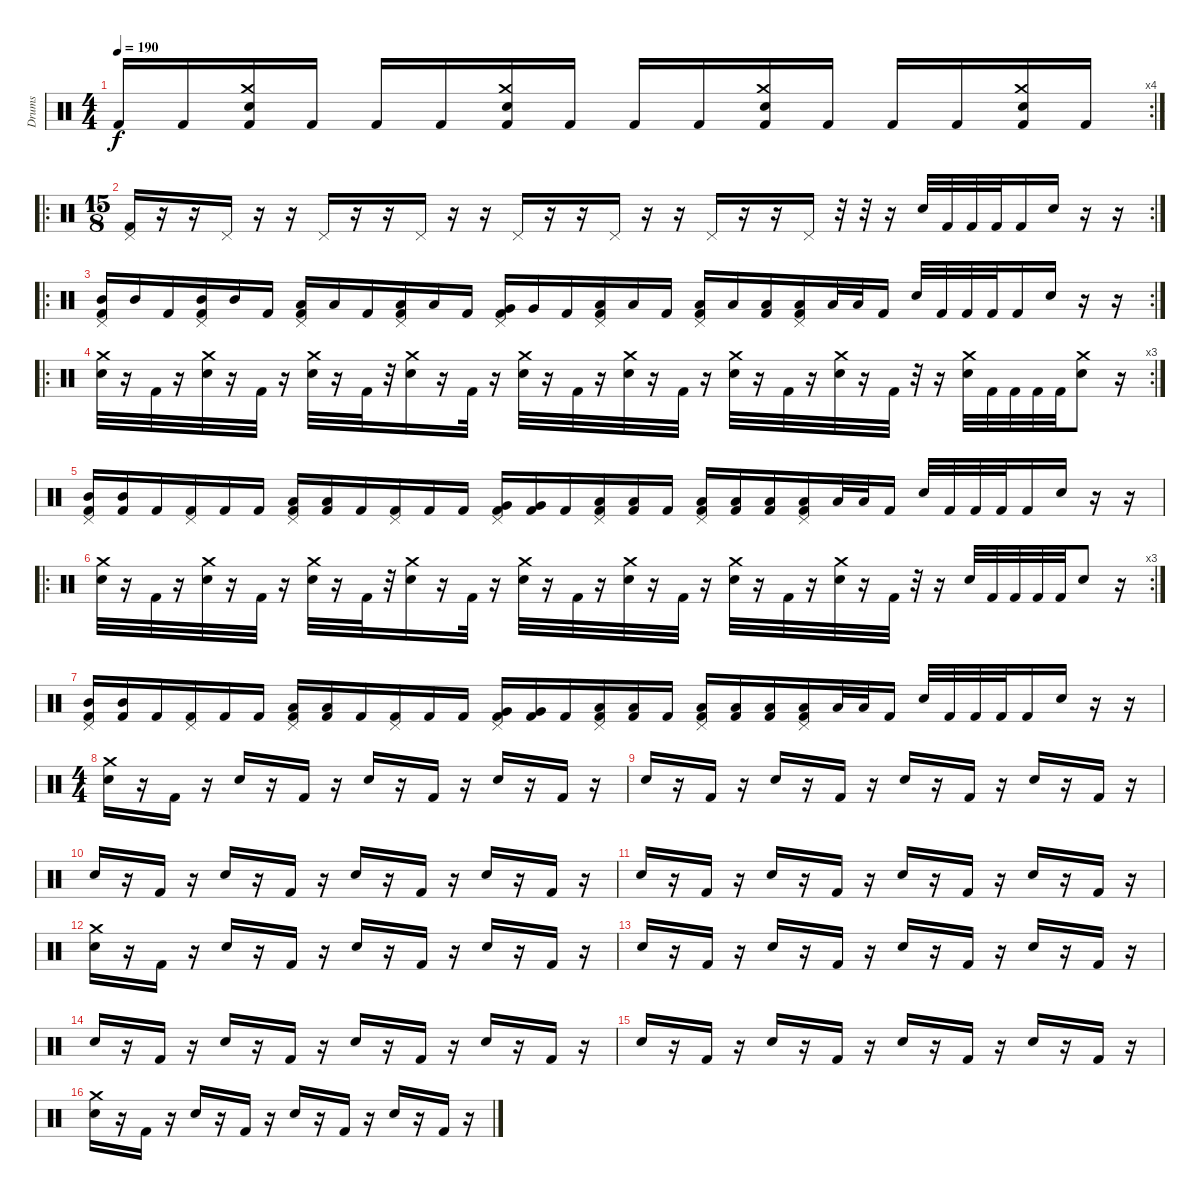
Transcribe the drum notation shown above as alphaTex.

\track ("Drums" "Drums") {instrument percussion}
\staff {score}
\articulation defaults
\rc 4
\ts (4 4)
\tempo 190
\clef neutral
\ks c "Kick (hit) 2".16{dy f} "Kick (hit) 2".16
("Crash medium (hit)" "Electric Snare (hit)" "Kick (hit) 2").16 "Kick (hit) 2".16 "Kick (hit) 2".16 "Kick (hit) 2".16 ("Crash medium (hit)" "Electric Snare (hit)" "Kick (hit) 2").16 "Kick (hit) 2".16 "Kick (hit) 2".16 "Kick (hit) 2".16 ("Crash medium (hit)" "Electric Snare (hit)" "Kick (hit) 2").16 "Kick (hit) 2".16 "Kick (hit) 2".16 "Kick (hit) 2".16 ("Crash medium (hit)" "Electric Snare (hit)" "Kick (hit) 2").16 "Kick (hit) 2".16 |
\ro
\rc 2
\ts (15 8)
("Pedal Hi-Hat (hit)" "Kick (hit) 2").16 r.16 r.16 "Pedal Hi-Hat (hit)".16 r.16 r.16 "Pedal Hi-Hat (hit)".16 r.16 r.16 "Pedal Hi-Hat (hit)".16 r.16 r.16 "Pedal Hi-Hat (hit)".16 r.16 r.16 "Pedal Hi-Hat (hit)".16 r.16 r.16 "Pedal Hi-Hat (hit)".16 r.16 r.16 "Pedal Hi-Hat (hit)".16 r.32 r.32 r.16 "Electric Snare (hit)".32 "Kick (hit) 2".32 "Kick (hit) 2".32 "Kick (hit) 2".32 "Kick (hit) 2".16 "Electric Snare (hit)".16 r.16 r.16 |
\ro
\rc 2
("Mid Tom (hit)" "Pedal Hi-Hat (hit)" "Kick (hit) 2").16 "Mid Tom (hit)".16 "Kick (hit) 2".16 ("Mid Tom (hit)" "Pedal Hi-Hat (hit)" "Kick (hit) 2").16 "Mid Tom (hit)".16 "Kick (hit) 2".16 ("Low Tom (hit)" "Pedal Hi-Hat (hit)" "Kick (hit) 2").16 "Low Tom (hit)".16 "Kick (hit) 2".16 ("Low Tom (hit)" "Pedal Hi-Hat (hit)" "Kick (hit) 2").16 "Low Tom (hit)".16 "Kick (hit) 2".16 ("Very Low Tom (hit)" "Pedal Hi-Hat (hit)" "Kick (hit) 2").16 "Very Low Tom (hit)".16 "Kick (hit) 2".16 ("Low Floor Tom (hit)" "Pedal Hi-Hat (hit)" "Kick (hit) 2").16 "Low Floor Tom (hit)".16 "Kick (hit) 2".16 ("Low Floor Tom (hit)" "Pedal Hi-Hat (hit)" "Kick (hit) 2").16 "Low Floor Tom (hit)".16 ("Low Floor Tom (hit)" "Kick (hit) 2").16 ("Low Floor Tom (hit)" "Pedal Hi-Hat (hit)" "Kick (hit) 2").16 "Low Floor Tom (hit)".32 "Low Floor Tom (hit)".32 "Kick (hit) 2".16 "Electric Snare (hit)".32 "Kick (hit) 2".32 "Kick (hit) 2".32 "Kick (hit) 2".32 "Kick (hit) 2".16 "Electric Snare (hit)".16 r.16 r.16 |
\ro
\rc 3
("Crash medium (hit)" "Electric Snare (hit)").32 r.16 "Kick (hit) 2".32 r.16 ("Crash medium (hit)" "Electric Snare (hit)").32 r.16 "Kick (hit) 2".32 r.16 ("Crash medium (hit)" "Electric Snare (hit)").32 r.16 "Kick (hit) 2".32 r.32 ("Crash medium (hit)" "Electric Snare (hit)").16 r.16 "Kick (hit) 2".32 r.16 ("Crash medium (hit)" "Electric Snare (hit)").32 r.16 "Kick (hit) 2".32 r.16 ("Crash medium (hit)" "Electric Snare (hit)").32 r.16 "Kick (hit) 2".32 r.16 ("Crash medium (hit)" "Electric Snare (hit)").32 r.16 "Kick (hit) 2".32 r.16 ("Crash medium (hit)" "Electric Snare (hit)").32 r.16 "Kick (hit) 2".32 r.32 r.16 ("Crash medium (hit)" "Electric Snare (hit)").32 "Kick (hit) 2".32 "Kick (hit) 2".32 "Kick (hit) 2".32 "Kick (hit) 2".32 ("Crash medium (hit)" "Electric Snare (hit)").8 r.16 |
("Mid Tom (hit)" "Pedal Hi-Hat (hit)" "Kick (hit) 2").16 ("Mid Tom (hit)" "Kick (hit) 2").16 "Kick (hit) 2".16 ("Pedal Hi-Hat (hit)" "Kick (hit) 2").16 "Kick (hit) 2".16 "Kick (hit) 2".16 ("Low Tom (hit)" "Pedal Hi-Hat (hit)" "Kick (hit) 2").16 ("Low Tom (hit)" "Kick (hit) 2").16 "Kick (hit) 2".16 ("Pedal Hi-Hat (hit)" "Kick (hit) 2").16 "Kick (hit) 2".16 "Kick (hit) 2".16 ("Very Low Tom (hit)" "Pedal Hi-Hat (hit)" "Kick (hit) 2").16 ("Very Low Tom (hit)" "Kick (hit) 2").16 "Kick (hit) 2".16 ("Low Floor Tom (hit)" "Pedal Hi-Hat (hit)" "Kick (hit) 2").16 ("Low Floor Tom (hit)" "Kick (hit) 2").16 "Kick (hit) 2".16 ("Low Floor Tom (hit)" "Pedal Hi-Hat (hit)" "Kick (hit) 2").16 ("Low Floor Tom (hit)" "Kick (hit) 2").16 ("Low Floor Tom (hit)" "Kick (hit) 2").16 ("Low Floor Tom (hit)" "Pedal Hi-Hat (hit)" "Kick (hit) 2").16 "Low Floor Tom (hit)".32 "Low Floor Tom (hit)".32 "Kick (hit) 2".16 "Electric Snare (hit)".32 "Kick (hit) 2".32 "Kick (hit) 2".32 "Kick (hit) 2".32 "Kick (hit) 2".16 "Electric Snare (hit)".16 r.16 r.16 |
\ro
\rc 3
("Crash medium (hit)" "Electric Snare (hit)").32 r.16 "Kick (hit) 2".32 r.16 ("Crash medium (hit)" "Electric Snare (hit)").32 r.16 "Kick (hit) 2".32 r.16 ("Crash medium (hit)" "Electric Snare (hit)").32 r.16 "Kick (hit) 2".32 r.32 ("Crash medium (hit)" "Electric Snare (hit)").16 r.16 "Kick (hit) 2".32 r.16 ("Crash medium (hit)" "Electric Snare (hit)").32 r.16 "Kick (hit) 2".32 r.16 ("Crash medium (hit)" "Electric Snare (hit)").32 r.16 "Kick (hit) 2".32 r.16 ("Crash medium (hit)" "Electric Snare (hit)").32 r.16 "Kick (hit) 2".32 r.16 ("Crash medium (hit)" "Electric Snare (hit)").32 r.16 "Kick (hit) 2".32 r.32 r.16 "Electric Snare (hit)".32 "Kick (hit) 2".32 "Kick (hit) 2".32 "Kick (hit) 2".32 "Kick (hit) 2".32 "Electric Snare (hit)".8 r.16 |
("Mid Tom (hit)" "Pedal Hi-Hat (hit)" "Kick (hit) 2").16 ("Mid Tom (hit)" "Kick (hit) 2").16 "Kick (hit) 2".16 ("Pedal Hi-Hat (hit)" "Kick (hit) 2").16 "Kick (hit) 2".16 "Kick (hit) 2".16 ("Low Tom (hit)" "Pedal Hi-Hat (hit)" "Kick (hit) 2").16 ("Low Tom (hit)" "Kick (hit) 2").16 "Kick (hit) 2".16 ("Pedal Hi-Hat (hit)" "Kick (hit) 2").16 "Kick (hit) 2".16 "Kick (hit) 2".16 ("Very Low Tom (hit)" "Pedal Hi-Hat (hit)" "Kick (hit) 2").16 ("Very Low Tom (hit)" "Kick (hit) 2").16 "Kick (hit) 2".16 ("Low Floor Tom (hit)" "Pedal Hi-Hat (hit)" "Kick (hit) 2").16 ("Low Floor Tom (hit)" "Kick (hit) 2").16 "Kick (hit) 2".16 ("Low Floor Tom (hit)" "Pedal Hi-Hat (hit)" "Kick (hit) 2").16 ("Low Floor Tom (hit)" "Kick (hit) 2").16 ("Low Floor Tom (hit)" "Kick (hit) 2").16 ("Low Floor Tom (hit)" "Pedal Hi-Hat (hit)" "Kick (hit) 2").16 "Low Floor Tom (hit)".32 "Low Floor Tom (hit)".32 "Kick (hit) 2".16 "Electric Snare (hit)".32 "Kick (hit) 2".32 "Kick (hit) 2".32 "Kick (hit) 2".32 "Kick (hit) 2".16 "Electric Snare (hit)".16 r.16 r.16 |
\ts (4 4)
("Crash medium (hit)" "Electric Snare (hit)").16 r.16 "Kick (hit) 2".16 r.16 "Electric Snare (hit)".16 r.16 "Kick (hit) 2".16 r.16 "Electric Snare (hit)".16 r.16 "Kick (hit) 2".16 r.16 "Electric Snare (hit)".16 r.16 "Kick (hit) 2".16 r.16 |
"Electric Snare (hit)".16 r.16 "Kick (hit) 2".16 r.16 "Electric Snare (hit)".16 r.16 "Kick (hit) 2".16 r.16 "Electric Snare (hit)".16 r.16 "Kick (hit) 2".16 r.16 "Electric Snare (hit)".16 r.16 "Kick (hit) 2".16 r.16 |
"Electric Snare (hit)".16 r.16 "Kick (hit) 2".16 r.16 "Electric Snare (hit)".16 r.16 "Kick (hit) 2".16 r.16 "Electric Snare (hit)".16 r.16 "Kick (hit) 2".16 r.16 "Electric Snare (hit)".16 r.16 "Kick (hit) 2".16 r.16 |
"Electric Snare (hit)".16 r.16 "Kick (hit) 2".16 r.16 "Electric Snare (hit)".16 r.16 "Kick (hit) 2".16 r.16 "Electric Snare (hit)".16 r.16 "Kick (hit) 2".16 r.16 "Electric Snare (hit)".16 r.16 "Kick (hit) 2".16 r.16 |
("Crash medium (hit)" "Electric Snare (hit)").16 r.16 "Kick (hit) 2".16 r.16 "Electric Snare (hit)".16 r.16 "Kick (hit) 2".16 r.16 "Electric Snare (hit)".16 r.16 "Kick (hit) 2".16 r.16 "Electric Snare (hit)".16 r.16 "Kick (hit) 2".16 r.16 |
"Electric Snare (hit)".16 r.16 "Kick (hit) 2".16 r.16 "Electric Snare (hit)".16 r.16 "Kick (hit) 2".16 r.16 "Electric Snare (hit)".16 r.16 "Kick (hit) 2".16 r.16 "Electric Snare (hit)".16 r.16 "Kick (hit) 2".16 r.16 |
"Electric Snare (hit)".16 r.16 "Kick (hit) 2".16 r.16 "Electric Snare (hit)".16 r.16 "Kick (hit) 2".16 r.16 "Electric Snare (hit)".16 r.16 "Kick (hit) 2".16 r.16 "Electric Snare (hit)".16 r.16 "Kick (hit) 2".16 r.16 |
"Electric Snare (hit)".16 r.16 "Kick (hit) 2".16 r.16 "Electric Snare (hit)".16 r.16 "Kick (hit) 2".16 r.16 "Electric Snare (hit)".16 r.16 "Kick (hit) 2".16 r.16 "Electric Snare (hit)".16 r.16 "Kick (hit) 2".16 r.16 |
("Crash medium (hit)" "Electric Snare (hit)").16 r.16 "Kick (hit) 2".16 r.16 "Electric Snare (hit)".16 r.16 "Kick (hit) 2".16 r.16 "Electric Snare (hit)".16 r.16 "Kick (hit) 2".16 r.16 "Electric Snare (hit)".16 r.16 "Kick (hit) 2".16 r.16
